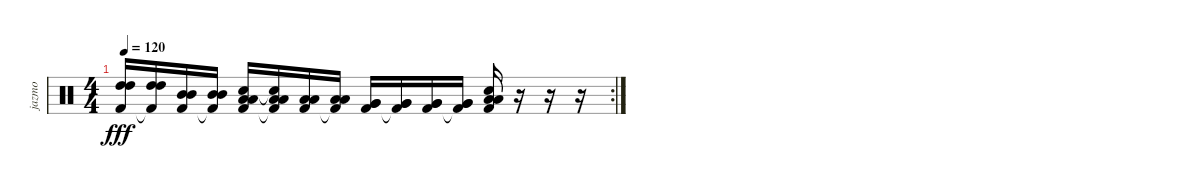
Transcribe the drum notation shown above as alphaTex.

\track ("jazmo" "jazmo") {instrument percussion}
\staff {score}
\articulation defaults
\rc 2
\ts (4 4)
\tempo 120
\clef neutral
\ks c
("High Tom (hit)" "High Tom (hit)" "Kick (hit) 2").16{dy fff} ("High Tom (hit)" "High Tom (hit)" "Kick (hit) 2"{t}).16 ("Mid Tom (hit)" "Mid Tom (hit)" "Kick (hit) 2").16 ("Mid Tom (hit)" "Mid Tom (hit)" "Kick (hit) 2"{t}).16 ("Low Tom (hit)" "Low Tom (hit)" "Electric Snare (hit)" "Kick (hit) 2").16 ("Low Tom (hit)" "Low Tom (hit)" "Snare (hit)"{t} "Kick (hit) 2"{t}).16 ("Low Tom (hit)" "Low Tom (hit)" "Kick (hit) 2").16 ("Low Tom (hit)" "Low Tom (hit)" "Kick (hit) 2"{t}).16 ("Very Low Tom (hit)" "Very Low Tom (hit)" "Kick (hit) 2").16 ("Very Low Tom (hit)" "Very Low Tom (hit)" "Kick (hit) 2"{t}).16 ("Very Low Tom (hit)" "Very Low Tom (hit)" "Kick (hit) 2").16 ("Very Low Tom (hit)" "Very Low Tom (hit)" "Kick (hit) 2"{t}).16 ("Low Floor Tom (hit)" "Low Floor Tom (hit)" "Electric Snare (hit)" "Kick (hit) 2").16 r.16 r.16 r.16
